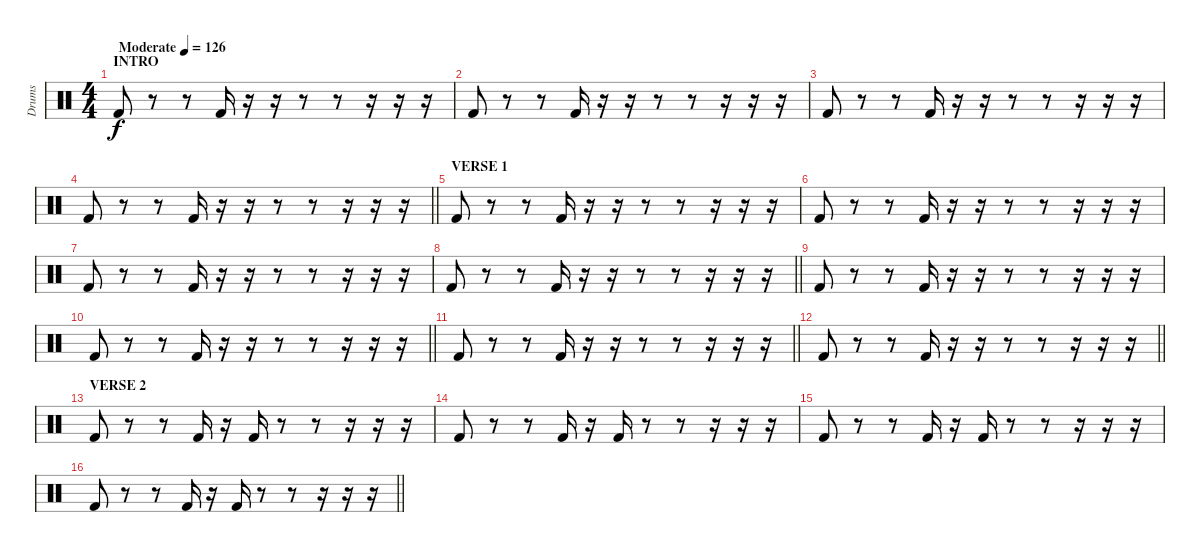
\track ("Drums" "Drums") {instrument percussion}
\staff {score}
\articulation defaults
\ts (4 4)
\section ("" "INTRO")
\tempo (126 "Moderate")
\clef neutral
\ks c "Kick (hit) 2".8{dy f}
r.8 r.8 "Kick (hit) 2".16 r.16 r.16 r.8 r.8 r.16 r.16 r.16 |
"Kick (hit) 2".8 r.8 r.8 "Kick (hit) 2".16 r.16 r.16 r.8 r.8 r.16 r.16 r.16 |
"Kick (hit) 2".8 r.8 r.8 "Kick (hit) 2".16 r.16 r.16 r.8 r.8 r.16 r.16 r.16 |
\barLineRight lightlight "Kick (hit) 2".8
r.8 r.8 "Kick (hit) 2".16 r.16 r.16 r.8 r.8 r.16 r.16 r.16 |
\section ("" "VERSE 1")
"Kick (hit) 2".8 r.8 r.8 "Kick (hit) 2".16 r.16 r.16 r.8 r.8 r.16 r.16 r.16 |
"Kick (hit) 2".8 r.8 r.8 "Kick (hit) 2".16 r.16 r.16 r.8 r.8 r.16 r.16 r.16 |
"Kick (hit) 2".8 r.8 r.8 "Kick (hit) 2".16 r.16 r.16 r.8 r.8 r.16 r.16 r.16 |
\barLineRight lightlight "Kick (hit) 2".8
r.8 r.8 "Kick (hit) 2".16 r.16 r.16 r.8 r.8 r.16 r.16 r.16 |
"Kick (hit) 2".8 r.8 r.8 "Kick (hit) 2".16 r.16 r.16 r.8 r.8 r.16 r.16 r.16 |
\barLineRight lightlight "Kick (hit) 2".8
r.8 r.8 "Kick (hit) 2".16 r.16 r.16 r.8 r.8 r.16 r.16 r.16 |
\barLineRight lightlight "Kick (hit) 2".8
r.8 r.8 "Kick (hit) 2".16 r.16 r.16 r.8 r.8 r.16 r.16 r.16 |
\barLineRight lightlight "Kick (hit) 2".8
r.8 r.8 "Kick (hit) 2".16 r.16 r.16 r.8 r.8 r.16 r.16 r.16 |
\section ("" "VERSE 2")
"Kick (hit) 2".8 r.8 r.8 "Kick (hit) 2".16 r.16 "Kick (hit) 2".16 r.8 r.8 r.16 r.16 r.16 |
"Kick (hit) 2".8 r.8 r.8 "Kick (hit) 2".16 r.16 "Kick (hit) 2".16 r.8 r.8 r.16 r.16 r.16 |
"Kick (hit) 2".8 r.8 r.8 "Kick (hit) 2".16 r.16 "Kick (hit) 2".16 r.8 r.8 r.16 r.16 r.16 |
\barLineRight lightlight "Kick (hit) 2".8
r.8 r.8 "Kick (hit) 2".16 r.16 "Kick (hit) 2".16 r.8 r.8 r.16 r.16 r.16
